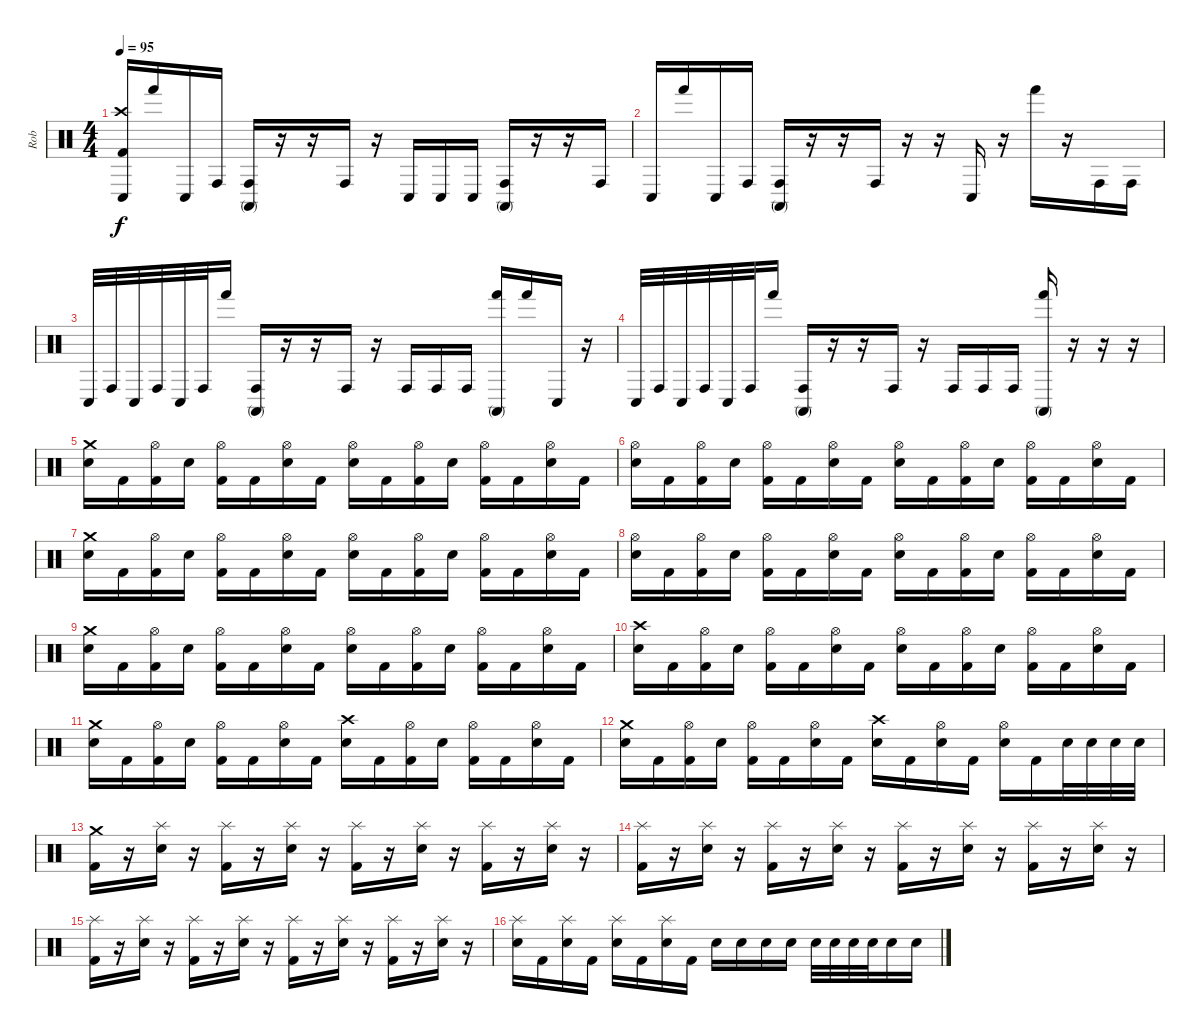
\track ("Rob" "Rob") {instrument percussion}
\staff {score}
\articulation defaults
\ts (4 4)
\tempo 95
\clef neutral
\ks c
("Crash high (hit)" "Conga low (hit)" "Kick (hit) 2").16{dy f} "Hand (hit)".16 "Conga low (hit)".16 "Conga high (hit)".16 ("Conga high (hit)" "Conga high (mute)").16 r.16 r.16 "Conga high (hit)".16 r.16 "Conga low (hit)".16 "Conga low (hit)".16 "Conga low (hit)".16 ("Conga high (hit)" "Conga high (mute)").16 r.16 r.16 "Conga high (hit)".16 |
"Conga low (hit)".16 "Hand (hit)".16 "Conga low (hit)".16 "Conga high (hit)".16 ("Conga high (hit)" "Conga high (mute)").16 r.16 r.16 "Conga high (hit)".16 r.16 r.16 "Conga low (hit)".16 r.16 "Hand (hit)".16 r.16 "Conga high (hit)".16 "Conga high (hit)".16 |
"Conga low (hit)".32 "Conga high (hit)".32 "Conga low (hit)".32 "Conga high (hit)".32 "Conga low (hit)".32 "Conga high (hit)".32 "Hand (hit)".16 ("Conga high (hit)" "Conga high (mute)").16 r.16 r.16 "Conga high (hit)".16 r.16 "Conga high (hit)".16 "Conga high (hit)".16 "Conga high (hit)".16 ("Conga high (mute)" "Hand (hit)").16 "Hand (hit)".16 "Conga low (hit)".16 r.16 |
"Conga low (hit)".32 "Conga high (hit)".32 "Conga low (hit)".32 "Conga high (hit)".32 "Conga low (hit)".32 "Conga high (hit)".32 "Hand (hit)".16 ("Conga high (hit)" "Conga high (mute)").16 r.16 r.16 "Conga high (hit)".16 r.16 "Conga high (hit)".16 "Conga high (hit)".16 "Conga high (hit)".16 ("Conga high (mute)" "Hand (hit)").16 r.16 r.16 r.16 |
("Crash medium (hit)" "Electric Snare (hit)").16 "Kick (hit) 2".16 ("Hi-Hat (open)" "Kick (hit) 2").16 "Electric Snare (hit)".16 ("Hi-Hat (open)" "Kick (hit) 2").16 "Kick (hit) 2".16 ("Hi-Hat (open)" "Electric Snare (hit)").16 "Kick (hit) 2".16 ("Hi-Hat (open)" "Electric Snare (hit)").16 "Kick (hit) 2".16 ("Hi-Hat (open)" "Kick (hit) 2").16 "Electric Snare (hit)".16 ("Hi-Hat (open)" "Kick (hit) 2").16 "Kick (hit) 2".16 ("Hi-Hat (open)" "Electric Snare (hit)").16 "Kick (hit) 2".16 |
("Hi-Hat (open)" "Electric Snare (hit)").16 "Kick (hit) 2".16 ("Hi-Hat (open)" "Kick (hit) 2").16 "Electric Snare (hit)".16 ("Hi-Hat (open)" "Kick (hit) 2").16 "Kick (hit) 2".16 ("Hi-Hat (open)" "Electric Snare (hit)").16 "Kick (hit) 2".16 ("Hi-Hat (open)" "Electric Snare (hit)").16 "Kick (hit) 2".16 ("Hi-Hat (open)" "Kick (hit) 2").16 "Electric Snare (hit)".16 ("Hi-Hat (open)" "Kick (hit) 2").16 "Kick (hit) 2".16 ("Hi-Hat (open)" "Electric Snare (hit)").16 "Kick (hit) 2".16 |
("Crash medium (hit)" "Electric Snare (hit)").16 "Kick (hit) 2".16 ("Hi-Hat (open)" "Kick (hit) 2").16 "Electric Snare (hit)".16 ("Hi-Hat (open)" "Kick (hit) 2").16 "Kick (hit) 2".16 ("Hi-Hat (open)" "Electric Snare (hit)").16 "Kick (hit) 2".16 ("Hi-Hat (open)" "Electric Snare (hit)").16 "Kick (hit) 2".16 ("Hi-Hat (open)" "Kick (hit) 2").16 "Electric Snare (hit)".16 ("Hi-Hat (open)" "Kick (hit) 2").16 "Kick (hit) 2".16 ("Hi-Hat (open)" "Electric Snare (hit)").16 "Kick (hit) 2".16 |
("Hi-Hat (open)" "Electric Snare (hit)").16 "Kick (hit) 2".16 ("Hi-Hat (open)" "Kick (hit) 2").16 "Electric Snare (hit)".16 ("Hi-Hat (open)" "Kick (hit) 2").16 "Kick (hit) 2".16 ("Hi-Hat (open)" "Electric Snare (hit)").16 "Kick (hit) 2".16 ("Hi-Hat (open)" "Electric Snare (hit)").16 "Kick (hit) 2".16 ("Hi-Hat (open)" "Kick (hit) 2").16 "Electric Snare (hit)".16 ("Hi-Hat (open)" "Kick (hit) 2").16 "Kick (hit) 2".16 ("Hi-Hat (open)" "Electric Snare (hit)").16 "Kick (hit) 2".16 |
("Crash medium (hit)" "Electric Snare (hit)").16 "Kick (hit) 2".16 ("Hi-Hat (open)" "Kick (hit) 2").16 "Electric Snare (hit)".16 ("Hi-Hat (open)" "Kick (hit) 2").16 "Kick (hit) 2".16 ("Hi-Hat (open)" "Electric Snare (hit)").16 "Kick (hit) 2".16 ("Hi-Hat (open)" "Electric Snare (hit)").16 "Kick (hit) 2".16 ("Hi-Hat (open)" "Kick (hit) 2").16 "Electric Snare (hit)".16 ("Hi-Hat (open)" "Kick (hit) 2").16 "Kick (hit) 2".16 ("Hi-Hat (open)" "Electric Snare (hit)").16 "Kick (hit) 2".16 |
("Crash high (hit)" "Electric Snare (hit)").16 "Kick (hit) 2".16 ("Hi-Hat (open)" "Kick (hit) 2").16 "Electric Snare (hit)".16 ("Hi-Hat (open)" "Kick (hit) 2").16 "Kick (hit) 2".16 ("Hi-Hat (open)" "Electric Snare (hit)").16 "Kick (hit) 2".16 ("Hi-Hat (open)" "Electric Snare (hit)").16 "Kick (hit) 2".16 ("Hi-Hat (open)" "Kick (hit) 2").16 "Electric Snare (hit)".16 ("Hi-Hat (open)" "Kick (hit) 2").16 "Kick (hit) 2".16 ("Hi-Hat (open)" "Electric Snare (hit)").16 "Kick (hit) 2".16 |
("Crash medium (hit)" "Electric Snare (hit)").16 "Kick (hit) 2".16 ("Hi-Hat (open)" "Kick (hit) 2").16 "Electric Snare (hit)".16 ("Hi-Hat (open)" "Kick (hit) 2").16 "Kick (hit) 2".16 ("Hi-Hat (open)" "Electric Snare (hit)").16 "Kick (hit) 2".16 ("Crash high (hit)" "Electric Snare (hit)").16 "Kick (hit) 2".16 ("Hi-Hat (open)" "Kick (hit) 2").16 "Electric Snare (hit)".16 ("Hi-Hat (open)" "Kick (hit) 2").16 "Kick (hit) 2".16 ("Hi-Hat (open)" "Electric Snare (hit)").16 "Kick (hit) 2".16 |
("Crash medium (hit)" "Electric Snare (hit)").16 "Kick (hit) 2".16 ("Hi-Hat (open)" "Kick (hit) 2").16 "Electric Snare (hit)".16 ("Hi-Hat (open)" "Kick (hit) 2").16 "Kick (hit) 2".16 ("Hi-Hat (open)" "Electric Snare (hit)").16 "Kick (hit) 2".16 ("Crash high (hit)" "Electric Snare (hit)").16 "Kick (hit) 2".16 ("Hi-Hat (open)" "Electric Snare (hit)").16 "Kick (hit) 2".16 ("Hi-Hat (open)" "Electric Snare (hit)").16 "Kick (hit) 2".16 "Electric Snare (hit)".32 "Electric Snare (hit)".32 "Electric Snare (hit)".32 "Electric Snare (hit)".32 |
("Crash medium (hit)" "Kick (hit) 2").16 r.16 ("Splash (hit)" "Electric Snare (hit)").16 r.16 ("Splash (hit)" "Kick (hit) 2").16 r.16 ("Splash (hit)" "Electric Snare (hit)").16 r.16 ("Splash (hit)" "Kick (hit) 2").16 r.16 ("Splash (hit)" "Electric Snare (hit)").16 r.16 ("Splash (hit)" "Kick (hit) 2").16 r.16 ("Splash (hit)" "Electric Snare (hit)").16 r.16 |
("Splash (hit)" "Kick (hit) 2").16 r.16 ("Splash (hit)" "Electric Snare (hit)").16 r.16 ("Splash (hit)" "Kick (hit) 2").16 r.16 ("Splash (hit)" "Electric Snare (hit)").16 r.16 ("Splash (hit)" "Kick (hit) 2").16 r.16 ("Splash (hit)" "Electric Snare (hit)").16 r.16 ("Splash (hit)" "Kick (hit) 2").16 r.16 ("Splash (hit)" "Electric Snare (hit)").16 r.16 |
("Splash (hit)" "Kick (hit) 2").16 r.16 ("Splash (hit)" "Electric Snare (hit)").16 r.16 ("Splash (hit)" "Kick (hit) 2").16 r.16 ("Splash (hit)" "Electric Snare (hit)").16 r.16 ("Splash (hit)" "Kick (hit) 2").16 r.16 ("Splash (hit)" "Electric Snare (hit)").16 r.16 ("Splash (hit)" "Kick (hit) 2").16 r.16 ("Splash (hit)" "Electric Snare (hit)").16 r.16 |
("Splash (hit)" "Electric Snare (hit)").16 "Kick (hit) 2".16 ("Splash (hit)" "Electric Snare (hit)").16 "Kick (hit) 2".16 ("Splash (hit)" "Electric Snare (hit)").16 "Kick (hit) 2".16 ("Splash (hit)" "Electric Snare (hit)").16 "Kick (hit) 2".16 "Electric Snare (hit)".16 "Electric Snare (hit)".16 "Electric Snare (hit)".16 "Electric Snare (hit)".16 "Electric Snare (hit)".32 "Electric Snare (hit)".32 "Electric Snare (hit)".32 "Electric Snare (hit)".32 "Electric Snare (hit)".16 "Electric Snare (hit)".16
